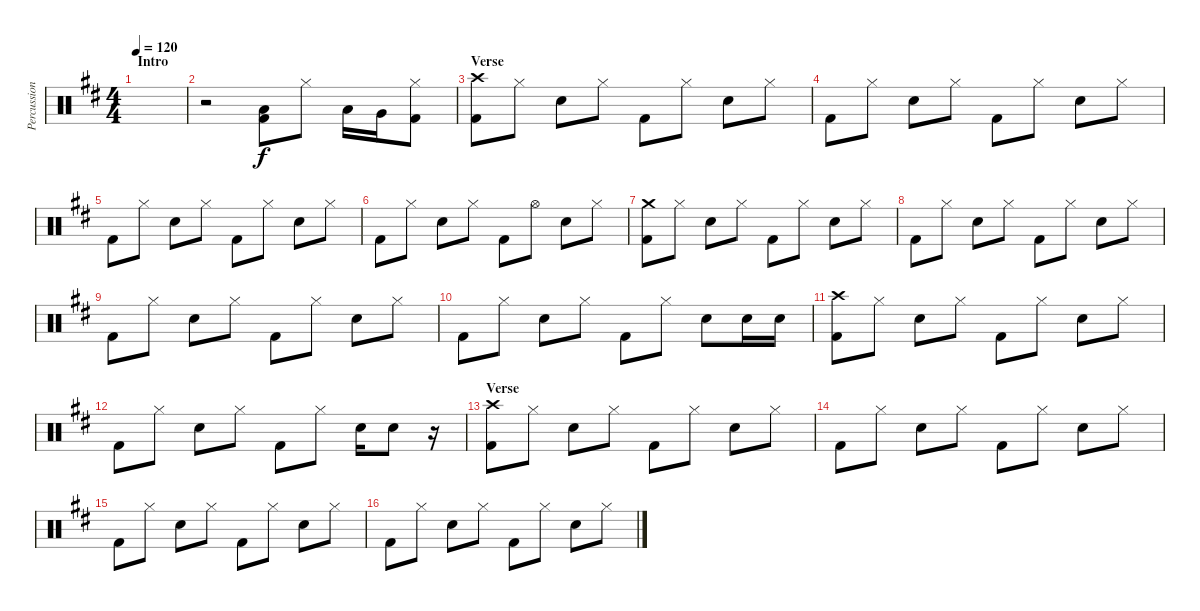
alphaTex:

\track ("Percussion" "Percussion") {instrument percussion}
\staff {score}
\articulation defaults
\ts (4 4)
\section ("" "Intro")
\tempo 120
\clef neutral
\ks d
|
r.2 ("Low Floor Tom (hit)" "Kick (hit) 2").8 "Hi-Hat (closed)".8 "Low Tom (hit)".16 "Very Low Tom (hit)".16 ("Hi-Hat (closed)" "Kick (hit) 2").8 |
\section ("" "Verse")
("Crash high (hit)" "Kick (hit) 2").8 "Hi-Hat (closed)".8 "Snare (hit) 2".8 "Hi-Hat (closed)".8 "Kick (hit) 2".8 "Hi-Hat (closed)".8 "Snare (hit) 2".8 "Hi-Hat (closed)".8 |
"Kick (hit) 2".8 "Hi-Hat (closed)".8 "Snare (hit) 2".8 "Hi-Hat (closed)".8 "Kick (hit) 2".8 "Hi-Hat (closed)".8 "Snare (hit) 2".8 "Hi-Hat (closed)".8 |
"Kick (hit) 2".8 "Hi-Hat (closed)".8 "Snare (hit) 2".8 "Hi-Hat (closed)".8 "Kick (hit) 2".8 "Hi-Hat (closed)".8 "Snare (hit) 2".8 "Hi-Hat (closed)".8 |
"Kick (hit) 2".8 "Hi-Hat (closed)".8 "Snare (hit) 2".8 "Hi-Hat (closed)".8 "Kick (hit) 2".8 "Hi-Hat (open)".8 "Snare (hit) 2".8 "Hi-Hat (closed)".8 |
("Crash medium (hit)" "Kick (hit) 2").8 "Hi-Hat (closed)".8 "Snare (hit) 2".8 "Hi-Hat (closed)".8 "Kick (hit) 2".8 "Hi-Hat (closed)".8 "Snare (hit) 2".8 "Hi-Hat (closed)".8 |
"Kick (hit) 2".8 "Hi-Hat (closed)".8 "Snare (hit) 2".8 "Hi-Hat (closed)".8 "Kick (hit) 2".8 "Hi-Hat (closed)".8 "Snare (hit) 2".8 "Hi-Hat (closed)".8 |
"Kick (hit) 2".8 "Hi-Hat (closed)".8 "Snare (hit) 2".8 "Hi-Hat (closed)".8 "Kick (hit) 2".8 "Hi-Hat (closed)".8 "Snare (hit) 2".8 "Hi-Hat (closed)".8 |
"Kick (hit) 2".8 "Hi-Hat (closed)".8 "Snare (hit) 2".8 "Hi-Hat (closed)".8 "Kick (hit) 2".8 "Hi-Hat (closed)".8 "Snare (hit) 2".8 "Snare (hit) 2".16 "Snare (hit) 2".16 |
("Crash high (hit)" "Kick (hit) 2").8 "Hi-Hat (closed)".8 "Snare (hit) 2".8 "Hi-Hat (closed)".8 "Kick (hit) 2".8 "Hi-Hat (closed)".8 "Snare (hit) 2".8 "Hi-Hat (closed)".8 |
"Kick (hit) 2".8 "Hi-Hat (closed)".8 "Snare (hit) 2".8 "Hi-Hat (closed)".8 "Kick (hit) 2".8 "Hi-Hat (closed)".8 "Snare (hit) 2".16 "Snare (hit) 2".8 r.16 |
\section ("" "Verse")
("Crash high (hit)" "Kick (hit) 2").8 "Hi-Hat (closed)".8 "Snare (hit) 2".8 "Hi-Hat (closed)".8 "Kick (hit) 2".8 "Hi-Hat (closed)".8 "Snare (hit) 2".8 "Hi-Hat (closed)".8 |
"Kick (hit) 2".8 "Hi-Hat (closed)".8 "Snare (hit) 2".8 "Hi-Hat (closed)".8 "Kick (hit) 2".8 "Hi-Hat (closed)".8 "Snare (hit) 2".8 "Hi-Hat (closed)".8 |
"Kick (hit) 2".8 "Hi-Hat (closed)".8 "Snare (hit) 2".8 "Hi-Hat (closed)".8 "Kick (hit) 2".8 "Hi-Hat (closed)".8 "Snare (hit) 2".8 "Hi-Hat (closed)".8 |
"Kick (hit) 2".8 "Hi-Hat (closed)".8 "Snare (hit) 2".8 "Hi-Hat (closed)".8 "Kick (hit) 2".8 "Hi-Hat (closed)".8 "Snare (hit) 2".8 "Hi-Hat (closed)".8
